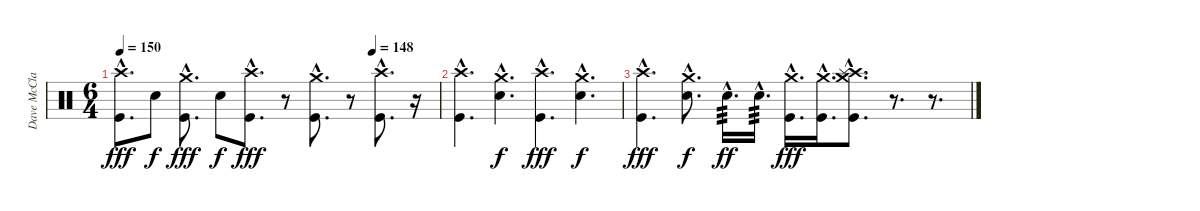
\track ("Dave McClain" "Dave McCla") {instrument percussion}
\staff {score}
\articulation defaults
\ts (6 4)
\tempo 150
\tempo (148 0.7916666666666666)
\clef neutral
\ks c
("Crash high (hit)"{hac} "Kick (hit)"{hac}).8{d dy fff} "Electric Snare (hit)".8{dy f} ("Crash medium (hit)"{hac} "Kick (hit)"{hac}).8{d dy fff} "Electric Snare (hit)".8{dy f} ("Crash high (hit)"{hac} "Kick (hit)"{hac}).8{d dy fff} r.8 ("Crash medium (hit)"{hac} "Kick (hit)"{hac}).8{d} r.8 ("Crash high (hit)"{hac} "Kick (hit)"{hac}).8{d} r.16 |
("Crash high (hit)"{hac} "Kick (hit)"{hac}).4{d} ("Crash medium (hit)"{hac} "Electric Snare (hit)"{hac}).4{d dy f} ("Crash high (hit)"{hac} "Kick (hit)"{hac}).4{d dy fff} ("Crash medium (hit)"{hac} "Electric Snare (hit)"{hac}).4{d dy f} |
("Crash high (hit)"{hac} "Kick (hit)"{hac}).4{d dy fff} ("Crash medium (hit)"{hac} "Electric Snare (hit)"{hac}).8{d dy f} "Electric Snare (hit)"{hac}.16{d tp 3 dy ff} "Electric Snare (hit)"{hac}.16{d tp 3} ("Crash medium (hit)"{hac} "Kick (hit)"{hac}).16{d dy fff} ("Crash medium (hit)"{hac} "Kick (hit)"{hac}).16{d} ("Crash medium (hit)"{hac} "Crash high (hit)"{hac} "Splash (hit)"{hac} "Kick (hit)"{hac}).8{d} r.8{d} r.8{d}
